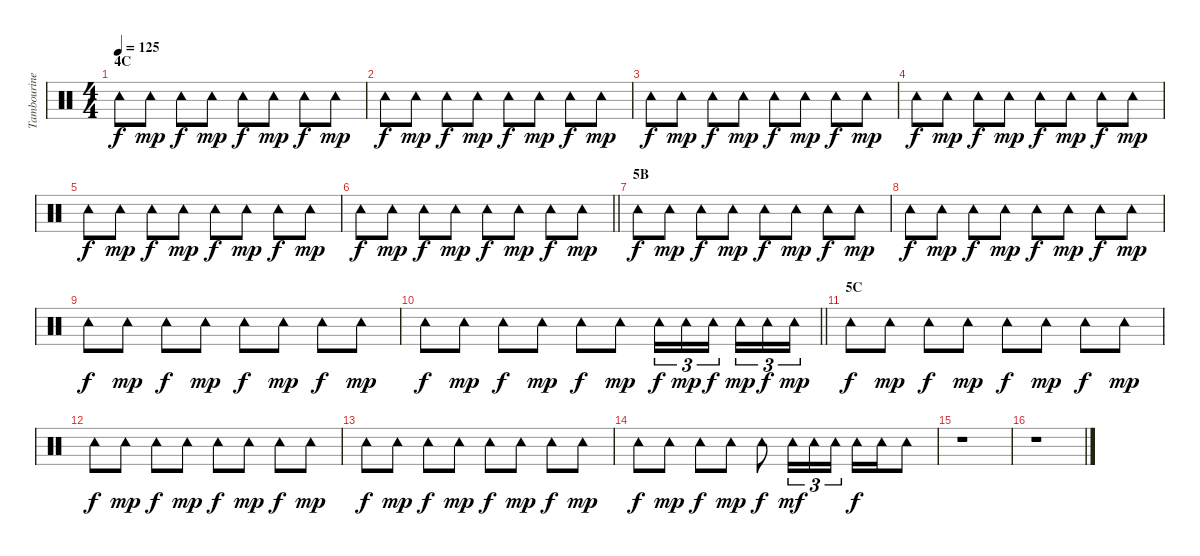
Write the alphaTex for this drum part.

\track ("Tambourine" "Tambourine") {instrument percussion}
\staff {score}
\articulation defaults
\ts (4 4)
\section ("" "4C")
\tempo 125
\clef neutral
\ks c "Tambourine (hit)".8{dy f} "Tambourine (hit)".8{dy mp} "Tambourine (hit)".8{dy f} "Tambourine (hit)".8{dy mp} "Tambourine (hit)".8{dy f} "Tambourine (hit)".8{dy mp} "Tambourine (hit)".8{dy f} "Tambourine (hit)".8{dy mp}
|
"Tambourine (hit)".8{dy f} "Tambourine (hit)".8{dy mp} "Tambourine (hit)".8{dy f} "Tambourine (hit)".8{dy mp} "Tambourine (hit)".8{dy f} "Tambourine (hit)".8{dy mp} "Tambourine (hit)".8{dy f} "Tambourine (hit)".8{dy mp} |
"Tambourine (hit)".8{dy f} "Tambourine (hit)".8{dy mp} "Tambourine (hit)".8{dy f} "Tambourine (hit)".8{dy mp} "Tambourine (hit)".8{dy f} "Tambourine (hit)".8{dy mp} "Tambourine (hit)".8{dy f} "Tambourine (hit)".8{dy mp} |
"Tambourine (hit)".8{dy f} "Tambourine (hit)".8{dy mp} "Tambourine (hit)".8{dy f} "Tambourine (hit)".8{dy mp} "Tambourine (hit)".8{dy f} "Tambourine (hit)".8{dy mp} "Tambourine (hit)".8{dy f} "Tambourine (hit)".8{dy mp} |
"Tambourine (hit)".8{dy f} "Tambourine (hit)".8{dy mp} "Tambourine (hit)".8{dy f} "Tambourine (hit)".8{dy mp} "Tambourine (hit)".8{dy f} "Tambourine (hit)".8{dy mp} "Tambourine (hit)".8{dy f} "Tambourine (hit)".8{dy mp} |
\barLineRight lightlight "Tambourine (hit)".8{dy f} "Tambourine (hit)".8{dy mp} "Tambourine (hit)".8{dy f} "Tambourine (hit)".8{dy mp} "Tambourine (hit)".8{dy f} "Tambourine (hit)".8{dy mp} "Tambourine (hit)".8{dy f} "Tambourine (hit)".8{dy mp}
|
\section ("" "5B")
"Tambourine (hit)".8{dy f} "Tambourine (hit)".8{dy mp} "Tambourine (hit)".8{dy f} "Tambourine (hit)".8{dy mp} "Tambourine (hit)".8{dy f} "Tambourine (hit)".8{dy mp} "Tambourine (hit)".8{dy f} "Tambourine (hit)".8{dy mp} |
"Tambourine (hit)".8{dy f} "Tambourine (hit)".8{dy mp} "Tambourine (hit)".8{dy f} "Tambourine (hit)".8{dy mp} "Tambourine (hit)".8{dy f} "Tambourine (hit)".8{dy mp} "Tambourine (hit)".8{dy f} "Tambourine (hit)".8{dy mp} |
"Tambourine (hit)".8{dy f} "Tambourine (hit)".8{dy mp} "Tambourine (hit)".8{dy f} "Tambourine (hit)".8{dy mp} "Tambourine (hit)".8{dy f} "Tambourine (hit)".8{dy mp} "Tambourine (hit)".8{dy f} "Tambourine (hit)".8{dy mp} |
\barLineRight lightlight "Tambourine (hit)".8{dy f} "Tambourine (hit)".8{dy mp} "Tambourine (hit)".8{dy f} "Tambourine (hit)".8{dy mp} "Tambourine (hit)".8{dy f} "Tambourine (hit)".8{dy mp} "Tambourine (hit)".16{tu (3 2) dy f} "Tambourine (hit)".16{tu (3 2) dy mp} "Tambourine (hit)".16{tu (3 2) dy f beam splitsecondary} "Tambourine (hit)".16{tu (3 2) dy mp} "Tambourine (hit)".16{tu (3 2) dy f} "Tambourine (hit)".16{tu (3 2) dy mp}
|
\section ("" "5C")
"Tambourine (hit)".8{dy f} "Tambourine (hit)".8{dy mp} "Tambourine (hit)".8{dy f} "Tambourine (hit)".8{dy mp} "Tambourine (hit)".8{dy f} "Tambourine (hit)".8{dy mp} "Tambourine (hit)".8{dy f} "Tambourine (hit)".8{dy mp} |
"Tambourine (hit)".8{dy f} "Tambourine (hit)".8{dy mp} "Tambourine (hit)".8{dy f} "Tambourine (hit)".8{dy mp} "Tambourine (hit)".8{dy f} "Tambourine (hit)".8{dy mp} "Tambourine (hit)".8{dy f} "Tambourine (hit)".8{dy mp} |
"Tambourine (hit)".8{dy f} "Tambourine (hit)".8{dy mp} "Tambourine (hit)".8{dy f} "Tambourine (hit)".8{dy mp} "Tambourine (hit)".8{dy f} "Tambourine (hit)".8{dy mp} "Tambourine (hit)".8{dy f} "Tambourine (hit)".8{dy mp} |
"Tambourine (hit)".8{dy f} "Tambourine (hit)".8{dy mp} "Tambourine (hit)".8{dy f} "Tambourine (hit)".8{dy mp} "Tambourine (hit)".8{dy f} "Tambourine (hit)".16{tu (3 2) dy mf} "Tambourine (hit)".16{tu (3 2)} "Tambourine (hit)".16{tu (3 2)} "Tambourine (hit)".16{dy f} "Tambourine (hit)".16 "Tambourine (hit)".8 |
r.1 |
r.1
